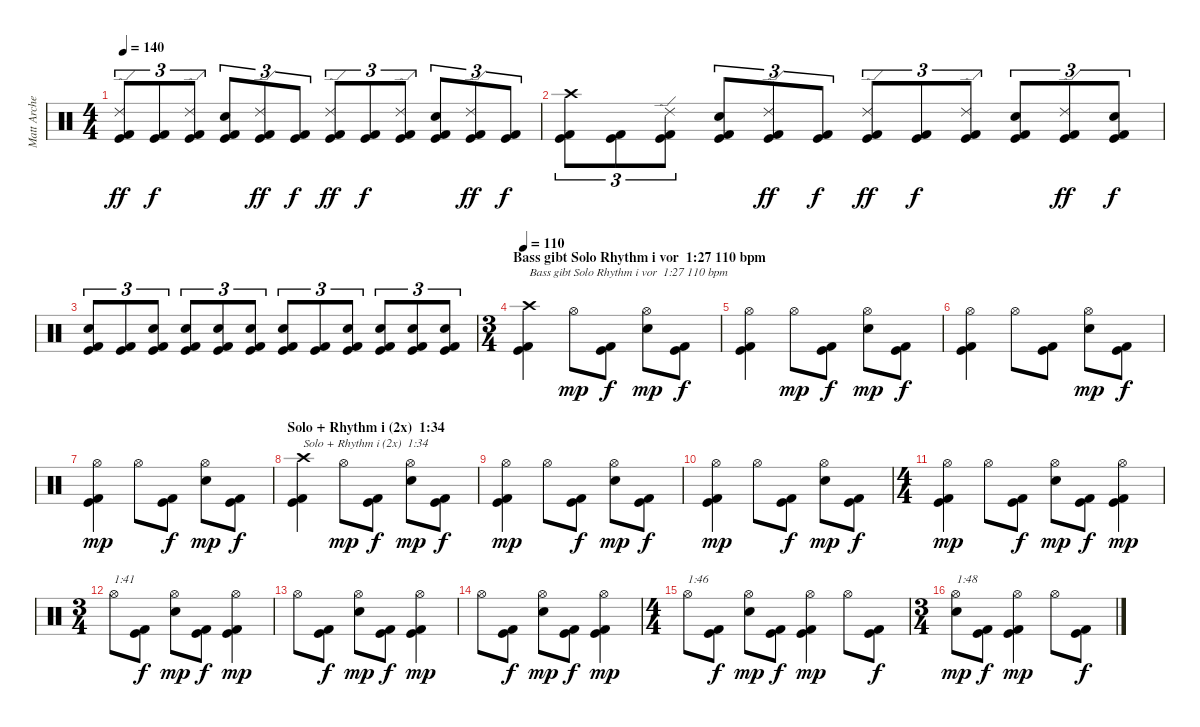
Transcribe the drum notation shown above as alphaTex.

\track ("Matt Archer" "Matt Arche") {instrument percussion}
\staff {score}
\articulation defaults
\ts (4 4)
\tempo 140
\clef neutral
\ks c
("Kick (hit)" "Kick (hit) 2" "Ride (edge) 2").8{tu (3 2) dy ff} ("Kick (hit)" "Kick (hit) 2").8{tu (3 2) dy f} ("Kick (hit)" "Kick (hit) 2" "Ride (edge) 2").8{tu (3 2)} ("Kick (hit)" "Kick (hit) 2" "Electric Snare (hit)").8{tu (3 2)} ("Kick (hit)" "Kick (hit) 2" "Ride (edge) 2").8{tu (3 2) dy ff} ("Kick (hit)" "Kick (hit) 2").8{tu (3 2) dy f} ("Kick (hit)" "Kick (hit) 2" "Ride (edge) 2").8{tu (3 2) dy ff} ("Kick (hit)" "Kick (hit) 2").8{tu (3 2) dy f} ("Kick (hit)" "Kick (hit) 2" "Ride (edge) 2").8{tu (3 2)} ("Kick (hit)" "Kick (hit) 2" "Electric Snare (hit)").8{tu (3 2)} ("Kick (hit)" "Kick (hit) 2" "Ride (edge) 2").8{tu (3 2) dy ff} ("Kick (hit)" "Kick (hit) 2").8{tu (3 2) dy f} |
("Kick (hit)" "Kick (hit) 2" "Crash high (hit)").8{tu (3 2)} ("Kick (hit)" "Kick (hit) 2").8{tu (3 2)} ("Kick (hit)" "Kick (hit) 2" "Ride (edge) 2").8{tu (3 2)} ("Kick (hit)" "Kick (hit) 2" "Electric Snare (hit)").8{tu (3 2)} ("Kick (hit)" "Kick (hit) 2" "Ride (edge) 2").8{tu (3 2) dy ff} ("Kick (hit)" "Kick (hit) 2").8{tu (3 2) dy f} ("Kick (hit)" "Kick (hit) 2" "Ride (edge) 2").8{tu (3 2) dy ff} ("Kick (hit)" "Kick (hit) 2").8{tu (3 2) dy f} ("Kick (hit)" "Kick (hit) 2" "Ride (edge) 2").8{tu (3 2)} ("Kick (hit)" "Kick (hit) 2" "Electric Snare (hit)").8{tu (3 2)} ("Kick (hit)" "Kick (hit) 2" "Ride (edge) 2").8{tu (3 2) dy ff} ("Kick (hit)" "Kick (hit) 2" "Electric Snare (hit)").8{tu (3 2) dy f} |
("Kick (hit)" "Kick (hit) 2" "Electric Snare (hit)").8{tu (3 2)} ("Kick (hit)" "Kick (hit) 2").8{tu (3 2)} ("Kick (hit)" "Kick (hit) 2" "Electric Snare (hit)").8{tu (3 2)} ("Kick (hit)" "Kick (hit) 2" "Electric Snare (hit)").8{tu (3 2)} ("Kick (hit)" "Kick (hit) 2" "Electric Snare (hit)").8{tu (3 2)} ("Kick (hit)" "Kick (hit) 2" "Electric Snare (hit)").8{tu (3 2)} ("Kick (hit)" "Kick (hit) 2" "Electric Snare (hit)").8{tu (3 2)} ("Kick (hit)" "Kick (hit) 2").8{tu (3 2)} ("Kick (hit)" "Kick (hit) 2" "Electric Snare (hit)").8{tu (3 2)} ("Kick (hit)" "Kick (hit) 2" "Electric Snare (hit)").8{tu (3 2)} ("Kick (hit)" "Kick (hit) 2" "Electric Snare (hit)").8{tu (3 2)} ("Kick (hit)" "Kick (hit) 2" "Electric Snare (hit)").8{tu (3 2)} |
\ts (3 4)
\section ("" "Bass gibt Solo Rhythm i vor  1:27 110 bpm")
\tempo 110
("Kick (hit)" "Kick (hit) 2" "Crash high (hit)").4{txt "Bass gibt Solo Rhythm i vor  1:27 110 bpm"} "Hi-Hat (open)".8{dy mp} ("Kick (hit)" "Kick (hit) 2").8{dy f} ("Electric Snare (hit)" "Hi-Hat (open)").8{dy mp} ("Kick (hit)" "Kick (hit) 2").8{dy f} |
("Kick (hit)" "Kick (hit) 2" "Hi-Hat (open)").4 "Hi-Hat (open)".8{dy mp} ("Kick (hit)" "Kick (hit) 2").8{dy f} ("Electric Snare (hit)" "Hi-Hat (open)").8{dy mp} ("Kick (hit)" "Kick (hit) 2").8{dy f} |
("Kick (hit)" "Kick (hit) 2" "Hi-Hat (open)").4 "Hi-Hat (open)".8 ("Kick (hit)" "Kick (hit) 2").8 ("Electric Snare (hit)" "Hi-Hat (open)").8{dy mp} ("Kick (hit)" "Kick (hit) 2").8{dy f} |
("Kick (hit)" "Kick (hit) 2" "Hi-Hat (open)").4{dy mp} "Hi-Hat (open)".8 ("Kick (hit)" "Kick (hit) 2").8{dy f} ("Electric Snare (hit)" "Hi-Hat (open)").8{dy mp} ("Kick (hit)" "Kick (hit) 2").8{dy f} |
\section ("" "Solo + Rhythm i (2x)  1:34")
("Kick (hit)" "Kick (hit) 2" "Crash high (hit)").4{txt "Solo + Rhythm i (2x)  1:34"} "Hi-Hat (open)".8{dy mp} ("Kick (hit)" "Kick (hit) 2").8{dy f} ("Electric Snare (hit)" "Hi-Hat (open)").8{dy mp} ("Kick (hit)" "Kick (hit) 2").8{dy f} |
("Kick (hit)" "Kick (hit) 2" "Hi-Hat (open)").4{dy mp} "Hi-Hat (open)".8 ("Kick (hit)" "Kick (hit) 2").8{dy f} ("Electric Snare (hit)" "Hi-Hat (open)").8{dy mp} ("Kick (hit)" "Kick (hit) 2").8{dy f} |
("Kick (hit)" "Kick (hit) 2" "Hi-Hat (open)").4{dy mp} "Hi-Hat (open)".8 ("Kick (hit)" "Kick (hit) 2").8{dy f} ("Electric Snare (hit)" "Hi-Hat (open)").8{dy mp} ("Kick (hit)" "Kick (hit) 2").8{dy f} |
\ts (4 4)
("Kick (hit)" "Kick (hit) 2" "Hi-Hat (open)").4{dy mp} "Hi-Hat (open)".8 ("Kick (hit)" "Kick (hit) 2").8{dy f} ("Electric Snare (hit)" "Hi-Hat (open)").8{dy mp} ("Kick (hit)" "Kick (hit) 2").8{dy f} ("Kick (hit)" "Kick (hit) 2" "Hi-Hat (open)").4{dy mp} |
\ts (3 4)
"Hi-Hat (open)".8{txt "1:41"} ("Kick (hit)" "Kick (hit) 2").8{dy f} ("Electric Snare (hit)" "Hi-Hat (open)").8{dy mp} ("Kick (hit)" "Kick (hit) 2").8{dy f} ("Kick (hit)" "Kick (hit) 2" "Hi-Hat (open)").4{dy mp} |
"Hi-Hat (open)".8 ("Kick (hit)" "Kick (hit) 2").8{dy f} ("Electric Snare (hit)" "Hi-Hat (open)").8{dy mp} ("Kick (hit)" "Kick (hit) 2").8{dy f} ("Kick (hit)" "Kick (hit) 2" "Hi-Hat (open)").4{dy mp} |
"Hi-Hat (open)".8 ("Kick (hit)" "Kick (hit) 2").8{dy f} ("Electric Snare (hit)" "Hi-Hat (open)").8{dy mp} ("Kick (hit)" "Kick (hit) 2").8{dy f} ("Kick (hit)" "Kick (hit) 2" "Hi-Hat (open)").4{dy mp} |
\ts (4 4)
"Hi-Hat (open)".8{txt "1:46"} ("Kick (hit)" "Kick (hit) 2").8{dy f} ("Electric Snare (hit)" "Hi-Hat (open)").8{dy mp} ("Kick (hit)" "Kick (hit) 2").8{dy f} ("Kick (hit)" "Kick (hit) 2" "Hi-Hat (open)").4{dy mp} "Hi-Hat (open)".8 ("Kick (hit)" "Kick (hit) 2").8{dy f} |
\ts (3 4)
("Electric Snare (hit)" "Hi-Hat (open)").8{txt "1:48" dy mp} ("Kick (hit)" "Kick (hit) 2").8{dy f} ("Kick (hit)" "Kick (hit) 2" "Hi-Hat (open)").4{dy mp} "Hi-Hat (open)".8 ("Kick (hit)" "Kick (hit) 2").8{dy f}
